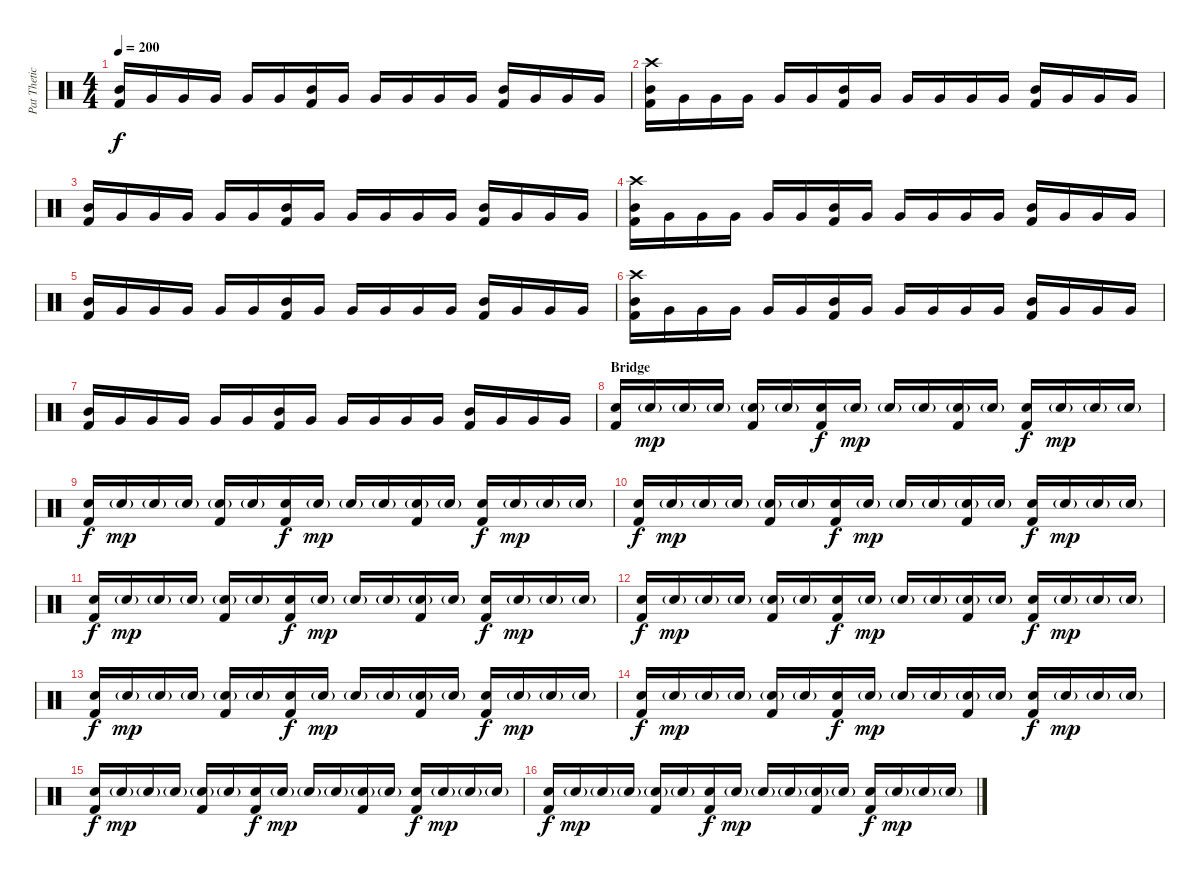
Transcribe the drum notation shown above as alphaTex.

\track ("Pat Thetic (Drums)" "Pat Thetic") {instrument percussion}
\staff {score}
\articulation defaults
\ts (4 4)
\tempo 200
\clef neutral
\ks c
("Mid Tom (hit)" "Kick (hit) 2").16{dy f} "Very Low Tom (hit)".16 "Very Low Tom (hit)".16 "Very Low Tom (hit)".16 "Very Low Tom (hit)".16 "Very Low Tom (hit)".16 ("Mid Tom (hit)" "Kick (hit) 2").16 "Very Low Tom (hit)".16 "Very Low Tom (hit)".16 "Very Low Tom (hit)".16 "Very Low Tom (hit)".16 "Very Low Tom (hit)".16 ("Mid Tom (hit)" "Kick (hit) 2").16 "Very Low Tom (hit)".16 "Very Low Tom (hit)".16 "Very Low Tom (hit)".16 |
("Crash high (hit)" "Mid Tom (hit)" "Kick (hit) 2").16 "Very Low Tom (hit)".16 "Very Low Tom (hit)".16 "Very Low Tom (hit)".16 "Very Low Tom (hit)".16 "Very Low Tom (hit)".16 ("Mid Tom (hit)" "Kick (hit) 2").16 "Very Low Tom (hit)".16 "Very Low Tom (hit)".16 "Very Low Tom (hit)".16 "Very Low Tom (hit)".16 "Very Low Tom (hit)".16 ("Mid Tom (hit)" "Kick (hit) 2").16 "Very Low Tom (hit)".16 "Very Low Tom (hit)".16 "Very Low Tom (hit)".16 |
("Mid Tom (hit)" "Kick (hit) 2").16 "Very Low Tom (hit)".16 "Very Low Tom (hit)".16 "Very Low Tom (hit)".16 "Very Low Tom (hit)".16 "Very Low Tom (hit)".16 ("Mid Tom (hit)" "Kick (hit) 2").16 "Very Low Tom (hit)".16 "Very Low Tom (hit)".16 "Very Low Tom (hit)".16 "Very Low Tom (hit)".16 "Very Low Tom (hit)".16 ("Mid Tom (hit)" "Kick (hit) 2").16 "Very Low Tom (hit)".16 "Very Low Tom (hit)".16 "Very Low Tom (hit)".16 |
("Crash high (hit)" "Mid Tom (hit)" "Kick (hit) 2").16 "Very Low Tom (hit)".16 "Very Low Tom (hit)".16 "Very Low Tom (hit)".16 "Very Low Tom (hit)".16 "Very Low Tom (hit)".16 ("Mid Tom (hit)" "Kick (hit) 2").16 "Very Low Tom (hit)".16 "Very Low Tom (hit)".16 "Very Low Tom (hit)".16 "Very Low Tom (hit)".16 "Very Low Tom (hit)".16 ("Mid Tom (hit)" "Kick (hit) 2").16 "Very Low Tom (hit)".16 "Very Low Tom (hit)".16 "Very Low Tom (hit)".16 |
("Mid Tom (hit)" "Kick (hit) 2").16 "Very Low Tom (hit)".16 "Very Low Tom (hit)".16 "Very Low Tom (hit)".16 "Very Low Tom (hit)".16 "Very Low Tom (hit)".16 ("Mid Tom (hit)" "Kick (hit) 2").16 "Very Low Tom (hit)".16 "Very Low Tom (hit)".16 "Very Low Tom (hit)".16 "Very Low Tom (hit)".16 "Very Low Tom (hit)".16 ("Mid Tom (hit)" "Kick (hit) 2").16 "Very Low Tom (hit)".16 "Very Low Tom (hit)".16 "Very Low Tom (hit)".16 |
("Crash high (hit)" "Mid Tom (hit)" "Kick (hit) 2").16 "Very Low Tom (hit)".16 "Very Low Tom (hit)".16 "Very Low Tom (hit)".16 "Very Low Tom (hit)".16 "Very Low Tom (hit)".16 ("Mid Tom (hit)" "Kick (hit) 2").16 "Very Low Tom (hit)".16 "Very Low Tom (hit)".16 "Very Low Tom (hit)".16 "Very Low Tom (hit)".16 "Very Low Tom (hit)".16 ("Mid Tom (hit)" "Kick (hit) 2").16 "Very Low Tom (hit)".16 "Very Low Tom (hit)".16 "Very Low Tom (hit)".16 |
("Mid Tom (hit)" "Kick (hit) 2").16 "Very Low Tom (hit)".16 "Very Low Tom (hit)".16 "Very Low Tom (hit)".16 "Very Low Tom (hit)".16 "Very Low Tom (hit)".16 ("Mid Tom (hit)" "Kick (hit) 2").16 "Very Low Tom (hit)".16 "Very Low Tom (hit)".16 "Very Low Tom (hit)".16 "Very Low Tom (hit)".16 "Very Low Tom (hit)".16 ("Mid Tom (hit)" "Kick (hit) 2").16 "Very Low Tom (hit)".16 "Very Low Tom (hit)".16 "Very Low Tom (hit)".16 |
\section ("" "Bridge")
("Electric Snare (hit)" "Kick (hit) 2").16 "Electric Snare (hit)"{g}.16{dy mp} "Electric Snare (hit)"{g}.16 "Electric Snare (hit)"{g}.16 ("Electric Snare (hit)"{g} "Kick (hit) 2").16 "Electric Snare (hit)"{g}.16 ("Electric Snare (hit)" "Kick (hit) 2").16{dy f} "Electric Snare (hit)"{g}.16{dy mp} "Electric Snare (hit)"{g}.16 "Electric Snare (hit)"{g}.16 ("Electric Snare (hit)"{g} "Kick (hit) 2").16 "Electric Snare (hit)"{g}.16 ("Electric Snare (hit)" "Kick (hit) 2").16{dy f} "Electric Snare (hit)"{g}.16{dy mp} "Electric Snare (hit)"{g}.16 "Electric Snare (hit)"{g}.16 |
("Electric Snare (hit)" "Kick (hit) 2").16{dy f} "Electric Snare (hit)"{g}.16{dy mp} "Electric Snare (hit)"{g}.16 "Electric Snare (hit)"{g}.16 ("Electric Snare (hit)"{g} "Kick (hit) 2").16 "Electric Snare (hit)"{g}.16 ("Electric Snare (hit)" "Kick (hit) 2").16{dy f} "Electric Snare (hit)"{g}.16{dy mp} "Electric Snare (hit)"{g}.16 "Electric Snare (hit)"{g}.16 ("Electric Snare (hit)"{g} "Kick (hit) 2").16 "Electric Snare (hit)"{g}.16 ("Electric Snare (hit)" "Kick (hit) 2").16{dy f} "Electric Snare (hit)"{g}.16{dy mp} "Electric Snare (hit)"{g}.16 "Electric Snare (hit)"{g}.16 |
("Electric Snare (hit)" "Kick (hit) 2").16{dy f} "Electric Snare (hit)"{g}.16{dy mp} "Electric Snare (hit)"{g}.16 "Electric Snare (hit)"{g}.16 ("Electric Snare (hit)"{g} "Kick (hit) 2").16 "Electric Snare (hit)"{g}.16 ("Electric Snare (hit)" "Kick (hit) 2").16{dy f} "Electric Snare (hit)"{g}.16{dy mp} "Electric Snare (hit)"{g}.16 "Electric Snare (hit)"{g}.16 ("Electric Snare (hit)"{g} "Kick (hit) 2").16 "Electric Snare (hit)"{g}.16 ("Electric Snare (hit)" "Kick (hit) 2").16{dy f} "Electric Snare (hit)"{g}.16{dy mp} "Electric Snare (hit)"{g}.16 "Electric Snare (hit)"{g}.16 |
("Electric Snare (hit)" "Kick (hit) 2").16{dy f} "Electric Snare (hit)"{g}.16{dy mp} "Electric Snare (hit)"{g}.16 "Electric Snare (hit)"{g}.16 ("Electric Snare (hit)"{g} "Kick (hit) 2").16 "Electric Snare (hit)"{g}.16 ("Electric Snare (hit)" "Kick (hit) 2").16{dy f} "Electric Snare (hit)"{g}.16{dy mp} "Electric Snare (hit)"{g}.16 "Electric Snare (hit)"{g}.16 ("Electric Snare (hit)"{g} "Kick (hit) 2").16 "Electric Snare (hit)"{g}.16 ("Electric Snare (hit)" "Kick (hit) 2").16{dy f} "Electric Snare (hit)"{g}.16{dy mp} "Electric Snare (hit)"{g}.16 "Electric Snare (hit)"{g}.16 |
("Electric Snare (hit)" "Kick (hit) 2").16{dy f} "Electric Snare (hit)"{g}.16{dy mp} "Electric Snare (hit)"{g}.16 "Electric Snare (hit)"{g}.16 ("Electric Snare (hit)"{g} "Kick (hit) 2").16 "Electric Snare (hit)"{g}.16 ("Electric Snare (hit)" "Kick (hit) 2").16{dy f} "Electric Snare (hit)"{g}.16{dy mp} "Electric Snare (hit)"{g}.16 "Electric Snare (hit)"{g}.16 ("Electric Snare (hit)"{g} "Kick (hit) 2").16 "Electric Snare (hit)"{g}.16 ("Electric Snare (hit)" "Kick (hit) 2").16{dy f} "Electric Snare (hit)"{g}.16{dy mp} "Electric Snare (hit)"{g}.16 "Electric Snare (hit)"{g}.16 |
("Electric Snare (hit)" "Kick (hit) 2").16{dy f} "Electric Snare (hit)"{g}.16{dy mp} "Electric Snare (hit)"{g}.16 "Electric Snare (hit)"{g}.16 ("Electric Snare (hit)"{g} "Kick (hit) 2").16 "Electric Snare (hit)"{g}.16 ("Electric Snare (hit)" "Kick (hit) 2").16{dy f} "Electric Snare (hit)"{g}.16{dy mp} "Electric Snare (hit)"{g}.16 "Electric Snare (hit)"{g}.16 ("Electric Snare (hit)"{g} "Kick (hit) 2").16 "Electric Snare (hit)"{g}.16 ("Electric Snare (hit)" "Kick (hit) 2").16{dy f} "Electric Snare (hit)"{g}.16{dy mp} "Electric Snare (hit)"{g}.16 "Electric Snare (hit)"{g}.16 |
("Electric Snare (hit)" "Kick (hit) 2").16{dy f} "Electric Snare (hit)"{g}.16{dy mp} "Electric Snare (hit)"{g}.16 "Electric Snare (hit)"{g}.16 ("Electric Snare (hit)"{g} "Kick (hit) 2").16 "Electric Snare (hit)"{g}.16 ("Electric Snare (hit)" "Kick (hit) 2").16{dy f} "Electric Snare (hit)"{g}.16{dy mp} "Electric Snare (hit)"{g}.16 "Electric Snare (hit)"{g}.16 ("Electric Snare (hit)"{g} "Kick (hit) 2").16 "Electric Snare (hit)"{g}.16 ("Electric Snare (hit)" "Kick (hit) 2").16{dy f} "Electric Snare (hit)"{g}.16{dy mp} "Electric Snare (hit)"{g}.16 "Electric Snare (hit)"{g}.16 |
("Electric Snare (hit)" "Kick (hit) 2").16{dy f} "Electric Snare (hit)"{g}.16{dy mp} "Electric Snare (hit)"{g}.16 "Electric Snare (hit)"{g}.16 ("Electric Snare (hit)"{g} "Kick (hit) 2").16 "Electric Snare (hit)"{g}.16 ("Electric Snare (hit)" "Kick (hit) 2").16{dy f} "Electric Snare (hit)"{g}.16{dy mp} "Electric Snare (hit)"{g}.16 "Electric Snare (hit)"{g}.16 ("Electric Snare (hit)"{g} "Kick (hit) 2").16 "Electric Snare (hit)"{g}.16 ("Electric Snare (hit)" "Kick (hit) 2").16{dy f} "Electric Snare (hit)"{g}.16{dy mp} "Electric Snare (hit)"{g}.16 "Electric Snare (hit)"{g}.16 |
("Electric Snare (hit)" "Kick (hit) 2").16{dy f} "Electric Snare (hit)"{g}.16{dy mp} "Electric Snare (hit)"{g}.16 "Electric Snare (hit)"{g}.16 ("Electric Snare (hit)"{g} "Kick (hit) 2").16 "Electric Snare (hit)"{g}.16 ("Electric Snare (hit)" "Kick (hit) 2").16{dy f} "Electric Snare (hit)"{g}.16{dy mp} "Electric Snare (hit)"{g}.16 "Electric Snare (hit)"{g}.16 ("Electric Snare (hit)"{g} "Kick (hit) 2").16 "Electric Snare (hit)"{g}.16 ("Electric Snare (hit)" "Kick (hit) 2").16{dy f} "Electric Snare (hit)"{g}.16{dy mp} "Electric Snare (hit)"{g}.16 "Electric Snare (hit)"{g}.16
